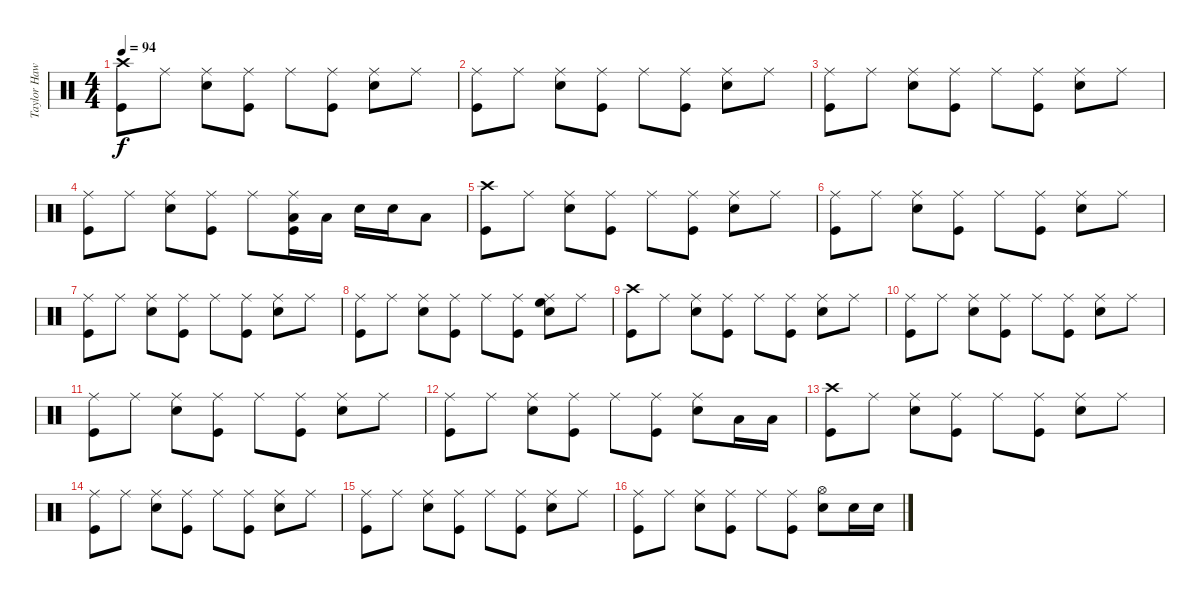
\track ("Taylor Hawkins - Drums" "Taylor Haw") {instrument percussion}
\staff {score}
\articulation defaults
\ts (4 4)
\tempo 94
\clef neutral
\ks c
("Crash high (hit)" "Kick (hit)").8{dy f} "Ride (middle)".8 ("Ride (middle)" "Electric Snare (hit)").8 ("Ride (middle)" "Kick (hit)").8 "Ride (middle)".8 ("Ride (middle)" "Kick (hit)").8 ("Ride (middle)" "Electric Snare (hit)").8 "Ride (middle)".8 |
("Ride (middle)" "Kick (hit)").8 "Ride (middle)".8 ("Ride (middle)" "Electric Snare (hit)").8 ("Ride (middle)" "Kick (hit)").8 "Ride (middle)".8 ("Ride (middle)" "Kick (hit)").8 ("Ride (middle)" "Electric Snare (hit)").8 "Ride (middle)".8 |
("Ride (middle)" "Kick (hit)").8 "Ride (middle)".8 ("Ride (middle)" "Electric Snare (hit)").8 ("Ride (middle)" "Kick (hit)").8 "Ride (middle)".8 ("Ride (middle)" "Kick (hit)").8 ("Ride (middle)" "Electric Snare (hit)").8 "Ride (middle)".8 |
("Ride (middle)" "Kick (hit)").8 "Ride (middle)".8 ("Ride (middle)" "Electric Snare (hit)").8 ("Ride (middle)" "Kick (hit)").8 "Ride (middle)".8 ("Ride (middle)" "Low Tom (hit)" "Kick (hit)").16 "Low Tom (hit)".16 "Electric Snare (hit)".16 "Electric Snare (hit)".16 "Low Floor Tom (hit)".8 |
("Crash high (hit)" "Kick (hit)").8 "Ride (middle)".8 ("Ride (middle)" "Electric Snare (hit)").8 ("Ride (middle)" "Kick (hit)").8 "Ride (middle)".8 ("Ride (middle)" "Kick (hit)").8 ("Ride (middle)" "Electric Snare (hit)").8 "Ride (middle)".8 |
("Ride (middle)" "Kick (hit)").8 "Ride (middle)".8 ("Ride (middle)" "Electric Snare (hit)").8 ("Ride (middle)" "Kick (hit)").8 "Ride (middle)".8 ("Ride (middle)" "Kick (hit)").8 ("Ride (middle)" "Electric Snare (hit)").8 "Ride (middle)".8 |
("Ride (middle)" "Kick (hit)").8 "Ride (middle)".8 ("Ride (middle)" "Electric Snare (hit)").8 ("Ride (middle)" "Kick (hit)").8 "Ride (middle)".8 ("Ride (middle)" "Kick (hit)").8 ("Ride (middle)" "Electric Snare (hit)").8 "Ride (middle)".8 |
("Ride (middle)" "Kick (hit)").8 "Ride (middle)".8 ("Ride (middle)" "Electric Snare (hit)").8 ("Ride (middle)" "Kick (hit)").8 "Ride (middle)".8 ("Ride (middle)" "Kick (hit)").8 ("Ride (middle)" "Electric Snare (hit)" "High Floor Tom (hit)").8 "Ride (middle)".8 |
("Crash high (hit)" "Kick (hit)").8 "Ride (middle)".8 ("Ride (middle)" "Electric Snare (hit)").8 ("Ride (middle)" "Kick (hit)").8 "Ride (middle)".8 ("Ride (middle)" "Kick (hit)").8 ("Ride (middle)" "Electric Snare (hit)").8 "Ride (middle)".8 |
("Ride (middle)" "Kick (hit)").8 "Ride (middle)".8 ("Ride (middle)" "Electric Snare (hit)").8 ("Ride (middle)" "Kick (hit)").8 "Ride (middle)".8 ("Ride (middle)" "Kick (hit)").8 ("Ride (middle)" "Electric Snare (hit)").8 "Ride (middle)".8 |
("Ride (middle)" "Kick (hit)").8 "Ride (middle)".8 ("Ride (middle)" "Electric Snare (hit)").8 ("Ride (middle)" "Kick (hit)").8 "Ride (middle)".8 ("Ride (middle)" "Kick (hit)").8 ("Ride (middle)" "Electric Snare (hit)").8 "Ride (middle)".8 |
("Ride (middle)" "Kick (hit)").8 "Ride (middle)".8 ("Ride (middle)" "Electric Snare (hit)").8 ("Ride (middle)" "Kick (hit)").8 "Ride (middle)".8 ("Ride (middle)" "Kick (hit)").8 ("Ride (middle)" "Electric Snare (hit)").8 "Low Tom (hit)".16 "Low Tom (hit)".16 |
("Crash high (hit)" "Kick (hit)").8 "Ride (middle)".8 ("Ride (middle)" "Electric Snare (hit)").8 ("Ride (middle)" "Kick (hit)").8 "Ride (middle)".8 ("Ride (middle)" "Kick (hit)").8 ("Ride (middle)" "Electric Snare (hit)").8 "Ride (middle)".8 |
("Ride (middle)" "Kick (hit)").8 "Ride (middle)".8 ("Ride (middle)" "Electric Snare (hit)").8 ("Ride (middle)" "Kick (hit)").8 "Ride (middle)".8 ("Ride (middle)" "Kick (hit)").8 ("Ride (middle)" "Electric Snare (hit)").8 "Ride (middle)".8 |
("Ride (middle)" "Kick (hit)").8 "Ride (middle)".8 ("Ride (middle)" "Electric Snare (hit)").8 ("Ride (middle)" "Kick (hit)").8 "Ride (middle)".8 ("Ride (middle)" "Kick (hit)").8 ("Ride (middle)" "Electric Snare (hit)").8 "Ride (middle)".8 |
("Ride (middle)" "Kick (hit)").8 "Ride (middle)".8 ("Ride (middle)" "Electric Snare (hit)").8 ("Ride (middle)" "Kick (hit)").8 "Ride (middle)".8 ("Ride (middle)" "Kick (hit)").8 ("Hi-Hat (open)" "Electric Snare (hit)").8 "Electric Snare (hit)".16 "Electric Snare (hit)".16
